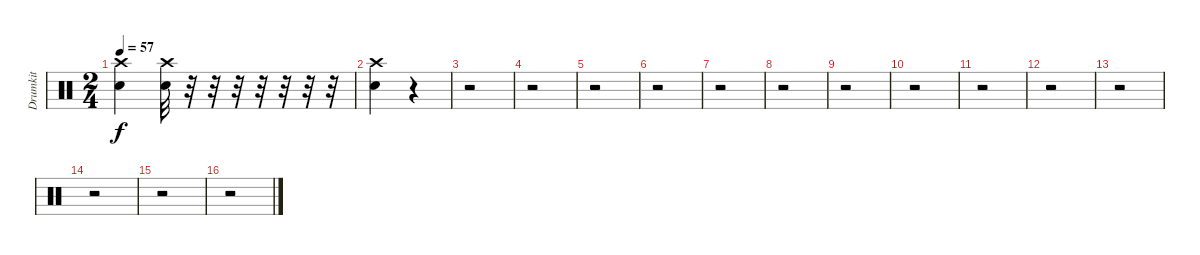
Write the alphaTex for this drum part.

\track ("Drumkit" "Drumkit") {instrument percussion}
\staff {score}
\articulation defaults
\ts (2 4)
\tempo 57
\clef neutral
\ks c
("Crash high (hit)" "Snare (hit) 2").4{dy f} ("Crash high (hit)" "Snare (hit) 2").32 r.32 r.32 r.32 r.32 r.32 r.32 r.32 |
("Crash high (hit)" "Snare (hit) 2").4 r.4 |
r.2 |
r.2 |
r.2 |
r.2 |
r.2 |
r.2 |
r.2 |
r.2 |
r.2 |
r.2 |
r.2 |
r.2 |
r.2 |
r.2
